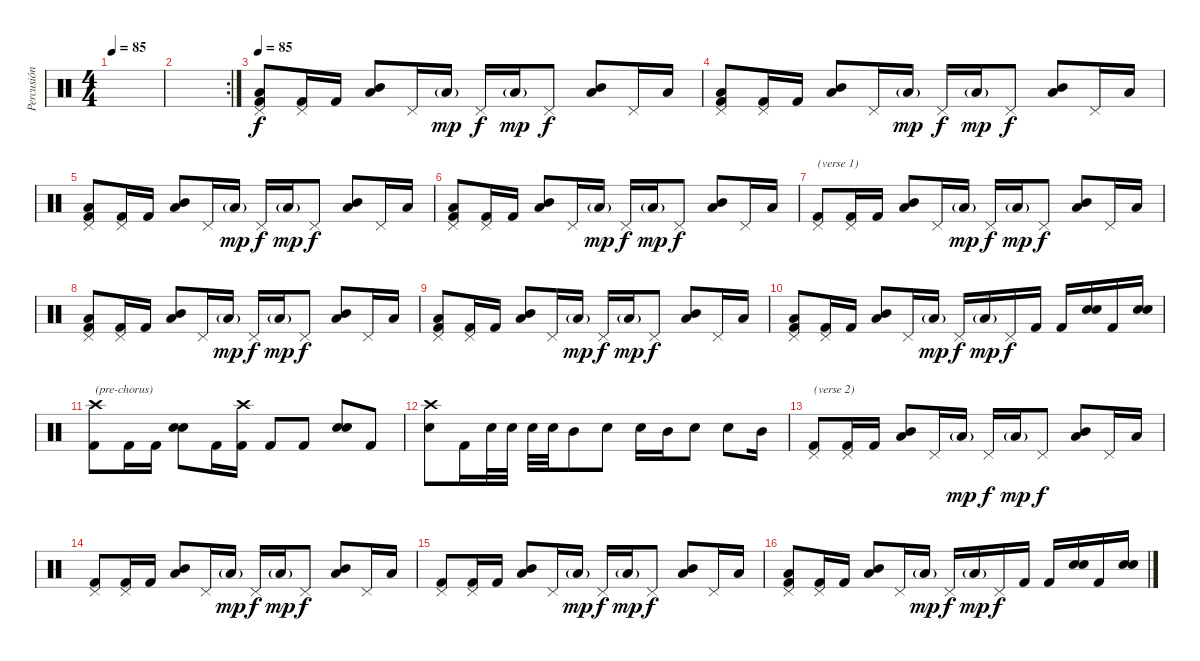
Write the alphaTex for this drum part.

\track ("Percusión" "Percusión") {instrument percussion}
\staff {score}
\articulation defaults
\ts (4 4)
\tempo 85
\tempo 60
\tempo 85
\clef neutral
\ks c
|
\rc 2
|
\tempo 85
("Low Floor Tom (hit)" "Pedal Hi-Hat (hit)"{x} "Kick (hit) 2").8 ("Pedal Hi-Hat (hit)"{x} "Kick (hit) 2").16 "Kick (hit) 2".16 ("Mid Tom (hit)" "Low Floor Tom (hit)").8 "Pedal Hi-Hat (hit)"{x}.16 "Low Floor Tom (hit)"{g}.16{dy mp} "Pedal Hi-Hat (hit)"{x}.16{dy f} "Low Floor Tom (hit)"{g}.16{dy mp} "Pedal Hi-Hat (hit)"{x}.8{dy f} ("Mid Tom (hit)" "Low Floor Tom (hit)").8 "Pedal Hi-Hat (hit)"{x}.16 "Low Floor Tom (hit)".16 |
("Low Floor Tom (hit)" "Pedal Hi-Hat (hit)"{x} "Kick (hit) 2").8 ("Pedal Hi-Hat (hit)"{x} "Kick (hit) 2").16 "Kick (hit) 2".16 ("Mid Tom (hit)" "Low Floor Tom (hit)").8 "Pedal Hi-Hat (hit)"{x}.16 "Low Floor Tom (hit)"{g}.16{dy mp} "Pedal Hi-Hat (hit)"{x}.16{dy f} "Low Floor Tom (hit)"{g}.16{dy mp} "Pedal Hi-Hat (hit)"{x}.8{dy f} ("Mid Tom (hit)" "Low Floor Tom (hit)").8 "Pedal Hi-Hat (hit)"{x}.16 "Low Floor Tom (hit)".16 |
("Low Floor Tom (hit)" "Pedal Hi-Hat (hit)"{x} "Kick (hit) 2").8 ("Pedal Hi-Hat (hit)"{x} "Kick (hit) 2").16 "Kick (hit) 2".16 ("Mid Tom (hit)" "Low Floor Tom (hit)").8 "Pedal Hi-Hat (hit)"{x}.16 "Low Floor Tom (hit)"{g}.16{dy mp} "Pedal Hi-Hat (hit)"{x}.16{dy f} "Low Floor Tom (hit)"{g}.16{dy mp} "Pedal Hi-Hat (hit)"{x}.8{dy f} ("Mid Tom (hit)" "Low Floor Tom (hit)").8 "Pedal Hi-Hat (hit)"{x}.16 "Low Floor Tom (hit)".16 |
("Low Floor Tom (hit)" "Pedal Hi-Hat (hit)"{x} "Kick (hit) 2").8 ("Pedal Hi-Hat (hit)"{x} "Kick (hit) 2").16 "Kick (hit) 2".16 ("Mid Tom (hit)" "Low Floor Tom (hit)").8 "Pedal Hi-Hat (hit)"{x}.16 "Low Floor Tom (hit)"{g}.16{dy mp} "Pedal Hi-Hat (hit)"{x}.16{dy f} "Low Floor Tom (hit)"{g}.16{dy mp} "Pedal Hi-Hat (hit)"{x}.8{dy f} ("Mid Tom (hit)" "Low Floor Tom (hit)").8 "Pedal Hi-Hat (hit)"{x}.16 "Low Floor Tom (hit)".16 |
("Pedal Hi-Hat (hit)"{x} "Kick (hit) 2").8{txt "(verse 1)"} ("Pedal Hi-Hat (hit)"{x} "Kick (hit) 2").16 "Kick (hit) 2".16 ("Mid Tom (hit)" "Low Floor Tom (hit)").8 "Pedal Hi-Hat (hit)"{x}.16 "Low Floor Tom (hit)"{g}.16{dy mp} "Pedal Hi-Hat (hit)"{x}.16{dy f} "Low Floor Tom (hit)"{g}.16{dy mp} "Pedal Hi-Hat (hit)"{x}.8{dy f} ("Mid Tom (hit)" "Low Floor Tom (hit)").8 "Pedal Hi-Hat (hit)"{x}.16 "Low Floor Tom (hit)".16 |
("Low Floor Tom (hit)" "Pedal Hi-Hat (hit)"{x} "Kick (hit) 2").8 ("Pedal Hi-Hat (hit)"{x} "Kick (hit) 2").16 "Kick (hit) 2".16 ("Mid Tom (hit)" "Low Floor Tom (hit)").8 "Pedal Hi-Hat (hit)"{x}.16 "Low Floor Tom (hit)"{g}.16{dy mp} "Pedal Hi-Hat (hit)"{x}.16{dy f} "Low Floor Tom (hit)"{g}.16{dy mp} "Pedal Hi-Hat (hit)"{x}.8{dy f} ("Mid Tom (hit)" "Low Floor Tom (hit)").8 "Pedal Hi-Hat (hit)"{x}.16 "Low Floor Tom (hit)".16 |
("Low Floor Tom (hit)" "Pedal Hi-Hat (hit)"{x} "Kick (hit) 2").8 ("Pedal Hi-Hat (hit)"{x} "Kick (hit) 2").16 "Kick (hit) 2".16 ("Mid Tom (hit)" "Low Floor Tom (hit)").8 "Pedal Hi-Hat (hit)"{x}.16 "Low Floor Tom (hit)"{g}.16{dy mp} "Pedal Hi-Hat (hit)"{x}.16{dy f} "Low Floor Tom (hit)"{g}.16{dy mp} "Pedal Hi-Hat (hit)"{x}.8{dy f} ("Mid Tom (hit)" "Low Floor Tom (hit)").8 "Pedal Hi-Hat (hit)"{x}.16 "Low Floor Tom (hit)".16 |
("Low Floor Tom (hit)" "Pedal Hi-Hat (hit)"{x} "Kick (hit) 2").8 ("Pedal Hi-Hat (hit)"{x} "Kick (hit) 2").16 "Kick (hit) 2".16 ("Mid Tom (hit)" "Low Floor Tom (hit)").8 "Pedal Hi-Hat (hit)"{x}.16 "Low Floor Tom (hit)"{g}.16{dy mp} "Pedal Hi-Hat (hit)"{x}.16{dy f} "Low Floor Tom (hit)"{g}.16{dy mp} "Pedal Hi-Hat (hit)"{x}.16{dy f} "Kick (hit) 2".16 "Kick (hit) 2".16 ("Snare (hit) 2" "Snare (hit) 2").16 "Kick (hit) 2".16 ("Snare (hit) 2" "Snare (hit) 2").16 |
("Crash high (hit)"{x} "Kick (hit) 2").8{txt "(pre-chorus)"} "Kick (hit) 2".16 "Kick (hit) 2".16 ("Electric Snare (hit)" "Electric Snare (hit)").8 "Kick (hit) 2".16 ("Crash high (hit)"{x} "Kick (hit) 2").16 "Kick (hit) 2".8 "Kick (hit) 2".8 ("Electric Snare (hit)" "Electric Snare (hit)").8 "Kick (hit) 2".8 |
("Crash high (hit)"{x} "Snare (hit) 2").8 "Kick (hit) 2".16 "Snare (hit) 2".32 "Snare (hit) 2".32 "Snare (hit) 2".32 "Snare (hit) 2".32 "Mid Tom (hit)".8 "Snare (hit) 2".8 "Snare (hit) 2".16 "Mid Tom (hit)".16 "Snare (hit) 2".8 "Snare (hit) 2".8 "Mid Tom (hit)".16 |
("Pedal Hi-Hat (hit)"{x} "Kick (hit) 2").8{txt "(verse 2)"} ("Pedal Hi-Hat (hit)"{x} "Kick (hit) 2").16 "Kick (hit) 2".16 ("Mid Tom (hit)" "Low Floor Tom (hit)").8 "Pedal Hi-Hat (hit)"{x}.16 "Low Floor Tom (hit)"{g}.16{dy mp} "Pedal Hi-Hat (hit)"{x}.16{dy f} "Low Floor Tom (hit)"{g}.16{dy mp} "Pedal Hi-Hat (hit)"{x}.8{dy f} ("Mid Tom (hit)" "Low Floor Tom (hit)").8 "Pedal Hi-Hat (hit)"{x}.16 "Low Floor Tom (hit)".16 |
("Pedal Hi-Hat (hit)"{x} "Kick (hit) 2").8 ("Pedal Hi-Hat (hit)"{x} "Kick (hit) 2").16 "Kick (hit) 2".16 ("Mid Tom (hit)" "Low Floor Tom (hit)").8 "Pedal Hi-Hat (hit)"{x}.16 "Low Floor Tom (hit)"{g}.16{dy mp} "Pedal Hi-Hat (hit)"{x}.16{dy f} "Low Floor Tom (hit)"{g}.16{dy mp} "Pedal Hi-Hat (hit)"{x}.8{dy f} ("Mid Tom (hit)" "Low Floor Tom (hit)").8 "Pedal Hi-Hat (hit)"{x}.16 "Low Floor Tom (hit)".16 |
("Pedal Hi-Hat (hit)"{x} "Kick (hit) 2").8 ("Pedal Hi-Hat (hit)"{x} "Kick (hit) 2").16 "Kick (hit) 2".16 ("Mid Tom (hit)" "Low Floor Tom (hit)").8 "Pedal Hi-Hat (hit)"{x}.16 "Low Floor Tom (hit)"{g}.16{dy mp} "Pedal Hi-Hat (hit)"{x}.16{dy f} "Low Floor Tom (hit)"{g}.16{dy mp} "Pedal Hi-Hat (hit)"{x}.8{dy f} ("Mid Tom (hit)" "Low Floor Tom (hit)").8 "Pedal Hi-Hat (hit)"{x}.16 "Low Floor Tom (hit)".16 |
("Low Floor Tom (hit)" "Pedal Hi-Hat (hit)"{x} "Kick (hit) 2").8 ("Pedal Hi-Hat (hit)"{x} "Kick (hit) 2").16 "Kick (hit) 2".16 ("Mid Tom (hit)" "Low Floor Tom (hit)").8 "Pedal Hi-Hat (hit)"{x}.16 "Low Floor Tom (hit)"{g}.16{dy mp} "Pedal Hi-Hat (hit)"{x}.16{dy f} "Low Floor Tom (hit)"{g}.16{dy mp} "Pedal Hi-Hat (hit)"{x}.16{dy f} "Kick (hit) 2".16 "Kick (hit) 2".16 ("Snare (hit) 2" "Snare (hit) 2").16 "Kick (hit) 2".16 ("Snare (hit) 2" "Snare (hit) 2").16
